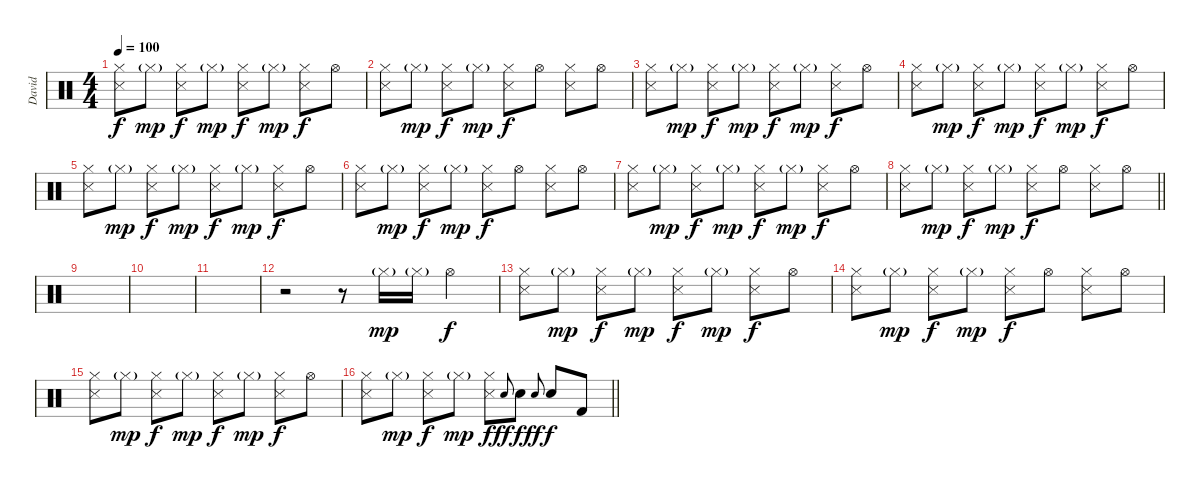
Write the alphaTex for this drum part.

\track ("David" "David") {instrument percussion}
\staff {score}
\articulation defaults
\ts (4 4)
\section ("" "")
\tempo 100
\clef neutral
\ks c
("Hi-Hat (closed)" "Snare (side stick) 3").8{dy f} "Hi-Hat (closed)"{g}.8{dy mp} ("Hi-Hat (closed)" "Snare (side stick) 3").8{dy f} "Hi-Hat (closed)"{g}.8{dy mp} ("Hi-Hat (closed)" "Snare (side stick) 3").8{dy f} "Hi-Hat (closed)"{g}.8{dy mp} ("Hi-Hat (closed)" "Snare (side stick) 3").8{dy f} "Hi-Hat (open)".8 |
("Hi-Hat (closed)" "Snare (side stick) 3").8 "Hi-Hat (closed)"{g}.8{dy mp} ("Hi-Hat (closed)" "Snare (side stick) 3").8{dy f} "Hi-Hat (closed)"{g}.8{dy mp} ("Hi-Hat (closed)" "Snare (side stick) 3").8{dy f} "Hi-Hat (open)".8 ("Hi-Hat (closed)" "Snare (side stick) 3").8 "Hi-Hat (open)".8 |
("Hi-Hat (closed)" "Snare (side stick) 3").8 "Hi-Hat (closed)"{g}.8{dy mp} ("Hi-Hat (closed)" "Snare (side stick) 3").8{dy f} "Hi-Hat (closed)"{g}.8{dy mp} ("Hi-Hat (closed)" "Snare (side stick) 3").8{dy f} "Hi-Hat (closed)"{g}.8{dy mp} ("Hi-Hat (closed)" "Snare (side stick) 3").8{dy f} "Hi-Hat (open)".8 |
("Hi-Hat (closed)" "Snare (side stick) 3").8 "Hi-Hat (closed)"{g}.8{dy mp} ("Hi-Hat (closed)" "Snare (side stick) 3").8{dy f} "Hi-Hat (closed)"{g}.8{dy mp} ("Hi-Hat (closed)" "Snare (side stick) 3").8{dy f} "Hi-Hat (closed)"{g}.8{dy mp} ("Hi-Hat (closed)" "Snare (side stick) 3").8{dy f} "Hi-Hat (open)".8 |
("Hi-Hat (closed)" "Snare (side stick) 3").8 "Hi-Hat (closed)"{g}.8{dy mp} ("Hi-Hat (closed)" "Snare (side stick) 3").8{dy f} "Hi-Hat (closed)"{g}.8{dy mp} ("Hi-Hat (closed)" "Snare (side stick) 3").8{dy f} "Hi-Hat (closed)"{g}.8{dy mp} ("Hi-Hat (closed)" "Snare (side stick) 3").8{dy f} "Hi-Hat (open)".8 |
("Hi-Hat (closed)" "Snare (side stick) 3").8 "Hi-Hat (closed)"{g}.8{dy mp} ("Hi-Hat (closed)" "Snare (side stick) 3").8{dy f} "Hi-Hat (closed)"{g}.8{dy mp} ("Hi-Hat (closed)" "Snare (side stick) 3").8{dy f} "Hi-Hat (open)".8 ("Hi-Hat (closed)" "Snare (side stick) 3").8 "Hi-Hat (open)".8 |
("Hi-Hat (closed)" "Snare (side stick) 3").8 "Hi-Hat (closed)"{g}.8{dy mp} ("Hi-Hat (closed)" "Snare (side stick) 3").8{dy f} "Hi-Hat (closed)"{g}.8{dy mp} ("Hi-Hat (closed)" "Snare (side stick) 3").8{dy f} "Hi-Hat (closed)"{g}.8{dy mp} ("Hi-Hat (closed)" "Snare (side stick) 3").8{dy f} "Hi-Hat (open)".8 |
\barLineRight lightlight
("Hi-Hat (closed)" "Snare (side stick) 3").8 "Hi-Hat (closed)"{g}.8{dy mp} ("Hi-Hat (closed)" "Snare (side stick) 3").8{dy f} "Hi-Hat (closed)"{g}.8{dy mp} ("Hi-Hat (closed)" "Snare (side stick) 3").8{dy f} "Hi-Hat (open)".8 ("Hi-Hat (closed)" "Snare (side stick) 3").8 "Hi-Hat (open)".8 |
\section ("" "")
|
|
|
r.2 r.8 "Hi-Hat (closed)"{g}.16{dy mp} "Hi-Hat (closed)"{g}.16 "Hi-Hat (open)".4{dy f} |
("Hi-Hat (closed)" "Snare (side stick) 3").8 "Hi-Hat (closed)"{g}.8{dy mp} ("Hi-Hat (closed)" "Snare (side stick) 3").8{dy f} "Hi-Hat (closed)"{g}.8{dy mp} ("Hi-Hat (closed)" "Snare (side stick) 3").8{dy f} "Hi-Hat (closed)"{g}.8{dy mp} ("Hi-Hat (closed)" "Snare (side stick) 3").8{dy f} "Hi-Hat (open)".8 |
("Hi-Hat (closed)" "Snare (side stick) 3").8 "Hi-Hat (closed)"{g}.8{dy mp} ("Hi-Hat (closed)" "Snare (side stick) 3").8{dy f} "Hi-Hat (closed)"{g}.8{dy mp} ("Hi-Hat (closed)" "Snare (side stick) 3").8{dy f} "Hi-Hat (open)".8 ("Hi-Hat (closed)" "Snare (side stick) 3").8 "Hi-Hat (open)".8 |
("Hi-Hat (closed)" "Snare (side stick) 3").8 "Hi-Hat (closed)"{g}.8{dy mp} ("Hi-Hat (closed)" "Snare (side stick) 3").8{dy f} "Hi-Hat (closed)"{g}.8{dy mp} ("Hi-Hat (closed)" "Snare (side stick) 3").8{dy f} "Hi-Hat (closed)"{g}.8{dy mp} ("Hi-Hat (closed)" "Snare (side stick) 3").8{dy f} "Hi-Hat (open)".8 |
\barLineRight lightlight
("Hi-Hat (closed)" "Snare (side stick) 3").8 "Hi-Hat (closed)"{g}.8{dy mp} ("Hi-Hat (closed)" "Snare (side stick) 3").8{dy f} "Hi-Hat (closed)"{g}.8{dy mp} ("Hi-Hat (closed)" "Snare (side stick) 3").8{dy f} "Snare (hit) 2".8{gr onbeat dy ff} "Snare (hit) 2".8{dy f} "Snare (hit) 2".8{gr onbeat dy ff} "Snare (hit) 2".8{dy f} "Kick (hit) 2".8
